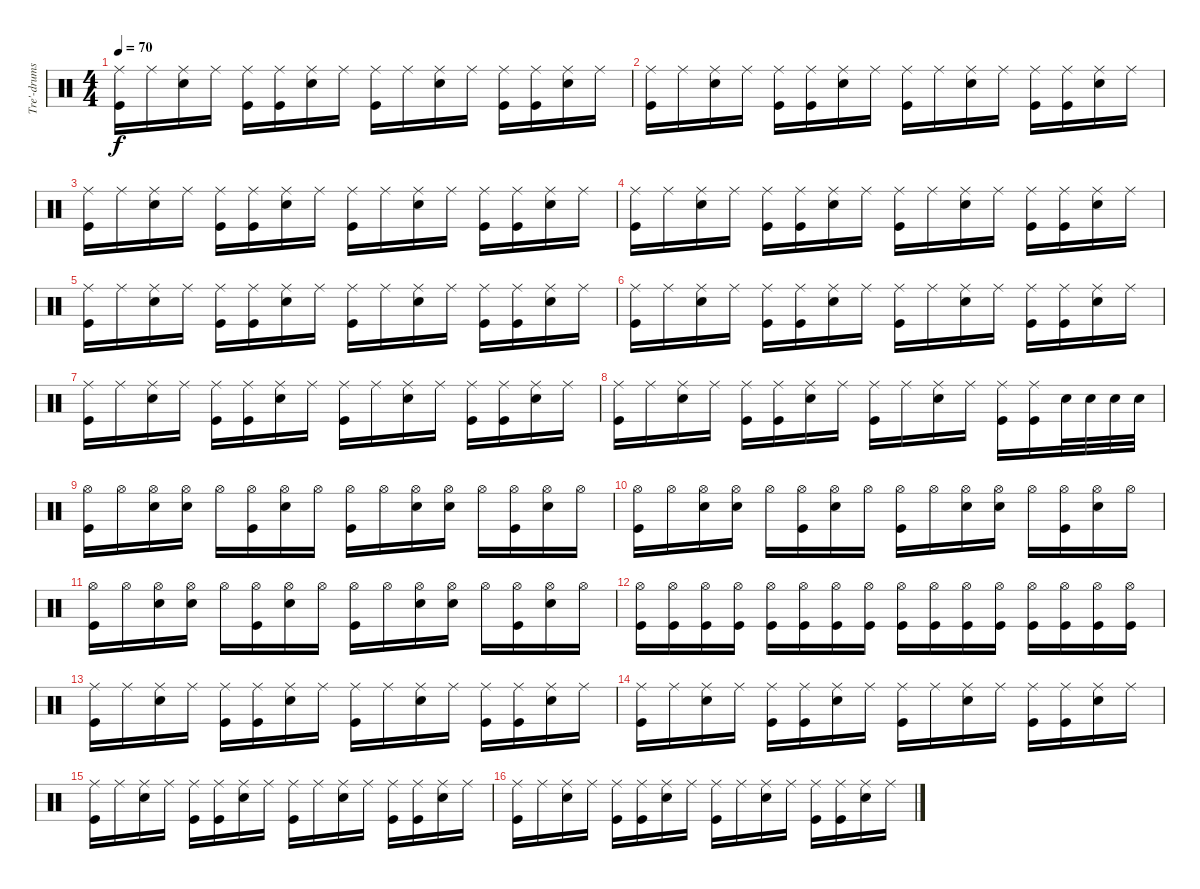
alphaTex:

\track ("Tre'-drums" "Tre'-drums") {instrument percussion}
\staff {score}
\articulation defaults
\ts (4 4)
\tempo 70
\clef neutral
\ks c
("Ride (middle)" "Kick (hit)").16{dy f} "Ride (middle)".16 ("Ride (middle)" "Snare (hit) 2").16 "Ride (middle)".16 ("Ride (middle)" "Kick (hit)").16 ("Ride (middle)" "Kick (hit)").16 ("Ride (middle)" "Snare (hit) 2").16 "Ride (middle)".16 ("Ride (middle)" "Kick (hit)").16 "Ride (middle)".16 ("Ride (middle)" "Snare (hit) 2").16 "Ride (middle)".16 ("Ride (middle)" "Kick (hit)").16 ("Ride (middle)" "Kick (hit)").16 ("Ride (middle)" "Snare (hit) 2").16 "Ride (middle)".16 |
("Ride (middle)" "Kick (hit)").16 "Ride (middle)".16 ("Ride (middle)" "Snare (hit) 2").16 "Ride (middle)".16 ("Ride (middle)" "Kick (hit)").16 ("Ride (middle)" "Kick (hit)").16 ("Ride (middle)" "Snare (hit) 2").16 "Ride (middle)".16 ("Ride (middle)" "Kick (hit)").16 "Ride (middle)".16 ("Ride (middle)" "Snare (hit) 2").16 "Ride (middle)".16 ("Ride (middle)" "Kick (hit)").16 ("Ride (middle)" "Kick (hit)").16 ("Ride (middle)" "Snare (hit) 2").16 "Ride (middle)".16 |
("Ride (middle)" "Kick (hit)").16 "Ride (middle)".16 ("Ride (middle)" "Snare (hit) 2").16 "Ride (middle)".16 ("Ride (middle)" "Kick (hit)").16 ("Ride (middle)" "Kick (hit)").16 ("Ride (middle)" "Snare (hit) 2").16 "Ride (middle)".16 ("Ride (middle)" "Kick (hit)").16 "Ride (middle)".16 ("Ride (middle)" "Snare (hit) 2").16 "Ride (middle)".16 ("Ride (middle)" "Kick (hit)").16 ("Ride (middle)" "Kick (hit)").16 ("Ride (middle)" "Snare (hit) 2").16 "Ride (middle)".16 |
("Ride (middle)" "Kick (hit)").16 "Ride (middle)".16 ("Ride (middle)" "Snare (hit) 2").16 "Ride (middle)".16 ("Ride (middle)" "Kick (hit)").16 ("Ride (middle)" "Kick (hit)").16 ("Ride (middle)" "Snare (hit) 2").16 "Ride (middle)".16 ("Ride (middle)" "Kick (hit)").16 "Ride (middle)".16 ("Ride (middle)" "Snare (hit) 2").16 "Ride (middle)".16 ("Ride (middle)" "Kick (hit)").16 ("Ride (middle)" "Kick (hit)").16 ("Ride (middle)" "Snare (hit) 2").16 "Ride (middle)".16 |
("Ride (middle)" "Kick (hit)").16 "Ride (middle)".16 ("Ride (middle)" "Snare (hit) 2").16 "Ride (middle)".16 ("Ride (middle)" "Kick (hit)").16 ("Ride (middle)" "Kick (hit)").16 ("Ride (middle)" "Snare (hit) 2").16 "Ride (middle)".16 ("Ride (middle)" "Kick (hit)").16 "Ride (middle)".16 ("Ride (middle)" "Snare (hit) 2").16 "Ride (middle)".16 ("Ride (middle)" "Kick (hit)").16 ("Ride (middle)" "Kick (hit)").16 ("Ride (middle)" "Snare (hit) 2").16 "Ride (middle)".16 |
("Ride (middle)" "Kick (hit)").16 "Ride (middle)".16 ("Ride (middle)" "Snare (hit) 2").16 "Ride (middle)".16 ("Ride (middle)" "Kick (hit)").16 ("Ride (middle)" "Kick (hit)").16 ("Ride (middle)" "Snare (hit) 2").16 "Ride (middle)".16 ("Ride (middle)" "Kick (hit)").16 "Ride (middle)".16 ("Ride (middle)" "Snare (hit) 2").16 "Ride (middle)".16 ("Ride (middle)" "Kick (hit)").16 ("Ride (middle)" "Kick (hit)").16 ("Ride (middle)" "Snare (hit) 2").16 "Ride (middle)".16 |
("Ride (middle)" "Kick (hit)").16 "Ride (middle)".16 ("Ride (middle)" "Snare (hit) 2").16 "Ride (middle)".16 ("Ride (middle)" "Kick (hit)").16 ("Ride (middle)" "Kick (hit)").16 ("Ride (middle)" "Snare (hit) 2").16 "Ride (middle)".16 ("Ride (middle)" "Kick (hit)").16 "Ride (middle)".16 ("Ride (middle)" "Snare (hit) 2").16 "Ride (middle)".16 ("Ride (middle)" "Kick (hit)").16 ("Ride (middle)" "Kick (hit)").16 ("Ride (middle)" "Snare (hit) 2").16 "Ride (middle)".16 |
("Ride (middle)" "Kick (hit)").16 "Ride (middle)".16 ("Ride (middle)" "Snare (hit) 2").16 "Ride (middle)".16 ("Ride (middle)" "Kick (hit)").16 ("Ride (middle)" "Kick (hit)").16 ("Ride (middle)" "Snare (hit) 2").16 "Ride (middle)".16 ("Ride (middle)" "Kick (hit)").16 "Ride (middle)".16 ("Ride (middle)" "Snare (hit) 2").16 "Ride (middle)".16 ("Ride (middle)" "Kick (hit)").16 ("Ride (middle)" "Kick (hit)").16 "Snare (hit) 2".32 "Snare (hit) 2".32 "Snare (hit) 2".32 "Snare (hit) 2".32 |
("Hi-Hat (open)" "Kick (hit)").16 "Hi-Hat (open)".16 ("Hi-Hat (open)" "Snare (hit) 2").16 ("Hi-Hat (open)" "Snare (hit) 2").16 "Hi-Hat (open)".16 ("Hi-Hat (open)" "Kick (hit)").16 ("Hi-Hat (open)" "Snare (hit) 2").16 "Hi-Hat (open)".16 ("Hi-Hat (open)" "Kick (hit)").16 "Hi-Hat (open)".16 ("Hi-Hat (open)" "Snare (hit) 2").16 ("Hi-Hat (open)" "Snare (hit) 2").16 "Hi-Hat (open)".16 ("Hi-Hat (open)" "Kick (hit)").16 ("Hi-Hat (open)" "Snare (hit) 2").16 "Hi-Hat (open)".16 |
("Hi-Hat (open)" "Kick (hit)").16 "Hi-Hat (open)".16 ("Hi-Hat (open)" "Snare (hit) 2").16 ("Hi-Hat (open)" "Snare (hit) 2").16 "Hi-Hat (open)".16 ("Hi-Hat (open)" "Kick (hit)").16 ("Hi-Hat (open)" "Snare (hit) 2").16 "Hi-Hat (open)".16 ("Hi-Hat (open)" "Kick (hit)").16 "Hi-Hat (open)".16 ("Hi-Hat (open)" "Snare (hit) 2").16 ("Hi-Hat (open)" "Snare (hit) 2").16 "Hi-Hat (open)".16 ("Hi-Hat (open)" "Kick (hit)").16 ("Hi-Hat (open)" "Snare (hit) 2").16 "Hi-Hat (open)".16 |
("Hi-Hat (open)" "Kick (hit)").16 "Hi-Hat (open)".16 ("Hi-Hat (open)" "Snare (hit) 2").16 ("Hi-Hat (open)" "Snare (hit) 2").16 "Hi-Hat (open)".16 ("Hi-Hat (open)" "Kick (hit)").16 ("Hi-Hat (open)" "Snare (hit) 2").16 "Hi-Hat (open)".16 ("Hi-Hat (open)" "Kick (hit)").16 "Hi-Hat (open)".16 ("Hi-Hat (open)" "Snare (hit) 2").16 ("Hi-Hat (open)" "Snare (hit) 2").16 "Hi-Hat (open)".16 ("Hi-Hat (open)" "Kick (hit)").16 ("Hi-Hat (open)" "Snare (hit) 2").16 "Hi-Hat (open)".16 |
("Hi-Hat (open)" "Kick (hit)").16 ("Hi-Hat (open)" "Kick (hit)").16 ("Hi-Hat (open)" "Kick (hit)").16 ("Hi-Hat (open)" "Kick (hit)").16 ("Hi-Hat (open)" "Kick (hit)").16 ("Hi-Hat (open)" "Kick (hit)").16 ("Hi-Hat (open)" "Kick (hit)").16 ("Hi-Hat (open)" "Kick (hit)").16 ("Hi-Hat (open)" "Kick (hit)").16 ("Hi-Hat (open)" "Kick (hit)").16 ("Hi-Hat (open)" "Kick (hit)").16 ("Hi-Hat (open)" "Kick (hit)").16 ("Hi-Hat (open)" "Kick (hit)").16 ("Hi-Hat (open)" "Kick (hit)").16 ("Hi-Hat (open)" "Kick (hit)").16 ("Hi-Hat (open)" "Kick (hit)").16 |
("Ride (middle)" "Kick (hit)").16 "Ride (middle)".16 ("Ride (middle)" "Snare (hit) 2").16 "Ride (middle)".16 ("Ride (middle)" "Kick (hit)").16 ("Ride (middle)" "Kick (hit)").16 ("Ride (middle)" "Snare (hit) 2").16 "Ride (middle)".16 ("Ride (middle)" "Kick (hit)").16 "Ride (middle)".16 ("Ride (middle)" "Snare (hit) 2").16 "Ride (middle)".16 ("Ride (middle)" "Kick (hit)").16 ("Ride (middle)" "Kick (hit)").16 ("Ride (middle)" "Snare (hit) 2").16 "Ride (middle)".16 |
("Ride (middle)" "Kick (hit)").16 "Ride (middle)".16 ("Ride (middle)" "Snare (hit) 2").16 "Ride (middle)".16 ("Ride (middle)" "Kick (hit)").16 ("Ride (middle)" "Kick (hit)").16 ("Ride (middle)" "Snare (hit) 2").16 "Ride (middle)".16 ("Ride (middle)" "Kick (hit)").16 "Ride (middle)".16 ("Ride (middle)" "Snare (hit) 2").16 "Ride (middle)".16 ("Ride (middle)" "Kick (hit)").16 ("Ride (middle)" "Kick (hit)").16 ("Ride (middle)" "Snare (hit) 2").16 "Ride (middle)".16 |
("Ride (middle)" "Kick (hit)").16 "Ride (middle)".16 ("Ride (middle)" "Snare (hit) 2").16 "Ride (middle)".16 ("Ride (middle)" "Kick (hit)").16 ("Ride (middle)" "Kick (hit)").16 ("Ride (middle)" "Snare (hit) 2").16 "Ride (middle)".16 ("Ride (middle)" "Kick (hit)").16 "Ride (middle)".16 ("Ride (middle)" "Snare (hit) 2").16 "Ride (middle)".16 ("Ride (middle)" "Kick (hit)").16 ("Ride (middle)" "Kick (hit)").16 ("Ride (middle)" "Snare (hit) 2").16 "Ride (middle)".16 |
("Ride (middle)" "Kick (hit)").16 "Ride (middle)".16 ("Ride (middle)" "Snare (hit) 2").16 "Ride (middle)".16 ("Ride (middle)" "Kick (hit)").16 ("Ride (middle)" "Kick (hit)").16 ("Ride (middle)" "Snare (hit) 2").16 "Ride (middle)".16 ("Ride (middle)" "Kick (hit)").16 "Ride (middle)".16 ("Ride (middle)" "Snare (hit) 2").16 "Ride (middle)".16 ("Ride (middle)" "Kick (hit)").16 ("Ride (middle)" "Kick (hit)").16 ("Ride (middle)" "Snare (hit) 2").16 "Ride (middle)".16
